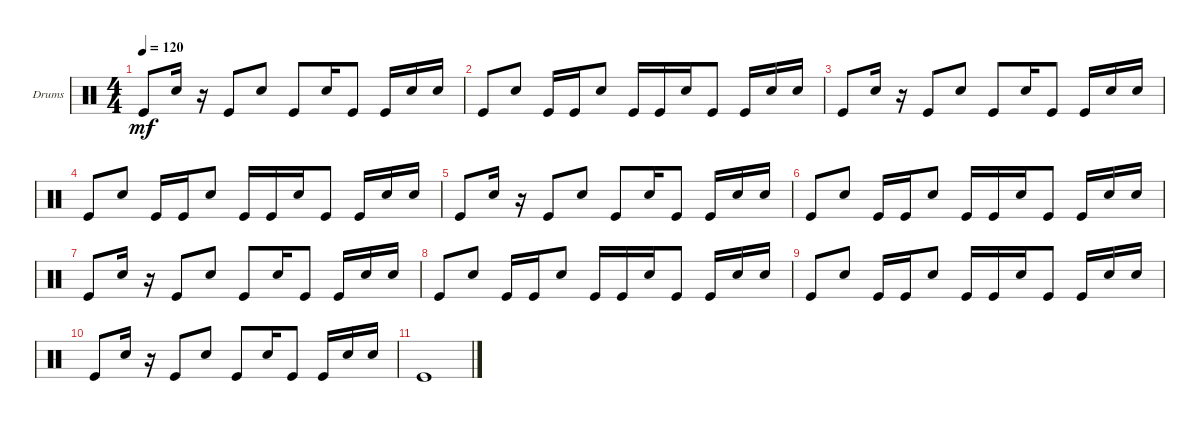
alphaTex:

\defaultSystemsLayout 4
\bracketExtendMode groupsimilarinstruments
\firstSystemTrackNameOrientation horizontal
\otherSystemsTrackNameOrientation horizontal
\track ("Drumkit" "Drums") {instrument percussion}
\staff {score}
\articulation defaults
\ts (4 4)
\tempo 120
\clef neutral
\ks c "Kick (hit)".8{dy mf} "Snare (hit) 2".16
r.16 "Kick (hit)".8 "Snare (hit) 2".8 "Kick (hit)".8 "Snare (hit) 2".16 "Kick (hit)".8 "Kick (hit)".16 "Snare (hit) 2".16 "Snare (hit) 2".16 |
"Kick (hit)".8 "Snare (hit) 2".8 "Kick (hit)".16 "Kick (hit)".16 "Snare (hit) 2".8 "Kick (hit)".16 "Kick (hit)".16 "Snare (hit) 2".16 "Kick (hit)".8 "Kick (hit)".16 "Snare (hit) 2".16 "Snare (hit) 2".16 |
"Kick (hit)".8 "Snare (hit) 2".16 r.16 "Kick (hit)".8 "Snare (hit) 2".8 "Kick (hit)".8 "Snare (hit) 2".16 "Kick (hit)".8 "Kick (hit)".16 "Snare (hit) 2".16 "Snare (hit) 2".16 |
"Kick (hit)".8 "Snare (hit) 2".8 "Kick (hit)".16 "Kick (hit)".16 "Snare (hit) 2".8 "Kick (hit)".16 "Kick (hit)".16 "Snare (hit) 2".16 "Kick (hit)".8 "Kick (hit)".16 "Snare (hit) 2".16 "Snare (hit) 2".16 |
"Kick (hit)".8 "Snare (hit) 2".16 r.16 "Kick (hit)".8 "Snare (hit) 2".8 "Kick (hit)".8 "Snare (hit) 2".16 "Kick (hit)".8 "Kick (hit)".16 "Snare (hit) 2".16 "Snare (hit) 2".16 |
"Kick (hit)".8 "Snare (hit) 2".8 "Kick (hit)".16 "Kick (hit)".16 "Snare (hit) 2".8 "Kick (hit)".16 "Kick (hit)".16 "Snare (hit) 2".16 "Kick (hit)".8 "Kick (hit)".16 "Snare (hit) 2".16 "Snare (hit) 2".16 |
"Kick (hit)".8 "Snare (hit) 2".16 r.16 "Kick (hit)".8 "Snare (hit) 2".8 "Kick (hit)".8 "Snare (hit) 2".16 "Kick (hit)".8 "Kick (hit)".16 "Snare (hit) 2".16 "Snare (hit) 2".16 |
"Kick (hit)".8 "Snare (hit) 2".8 "Kick (hit)".16 "Kick (hit)".16 "Snare (hit) 2".8 "Kick (hit)".16 "Kick (hit)".16 "Snare (hit) 2".16 "Kick (hit)".8 "Kick (hit)".16 "Snare (hit) 2".16 "Snare (hit) 2".16 |
"Kick (hit)".8 "Snare (hit) 2".8 "Kick (hit)".16 "Kick (hit)".16 "Snare (hit) 2".8 "Kick (hit)".16 "Kick (hit)".16 "Snare (hit) 2".16 "Kick (hit)".8 "Kick (hit)".16 "Snare (hit) 2".16 "Snare (hit) 2".16 |
"Kick (hit)".8 "Snare (hit) 2".16 r.16 "Kick (hit)".8 "Snare (hit) 2".8 "Kick (hit)".8 "Snare (hit) 2".16 "Kick (hit)".8 "Kick (hit)".16 "Snare (hit) 2".16 "Snare (hit) 2".16 |
"Kick (hit)".1
